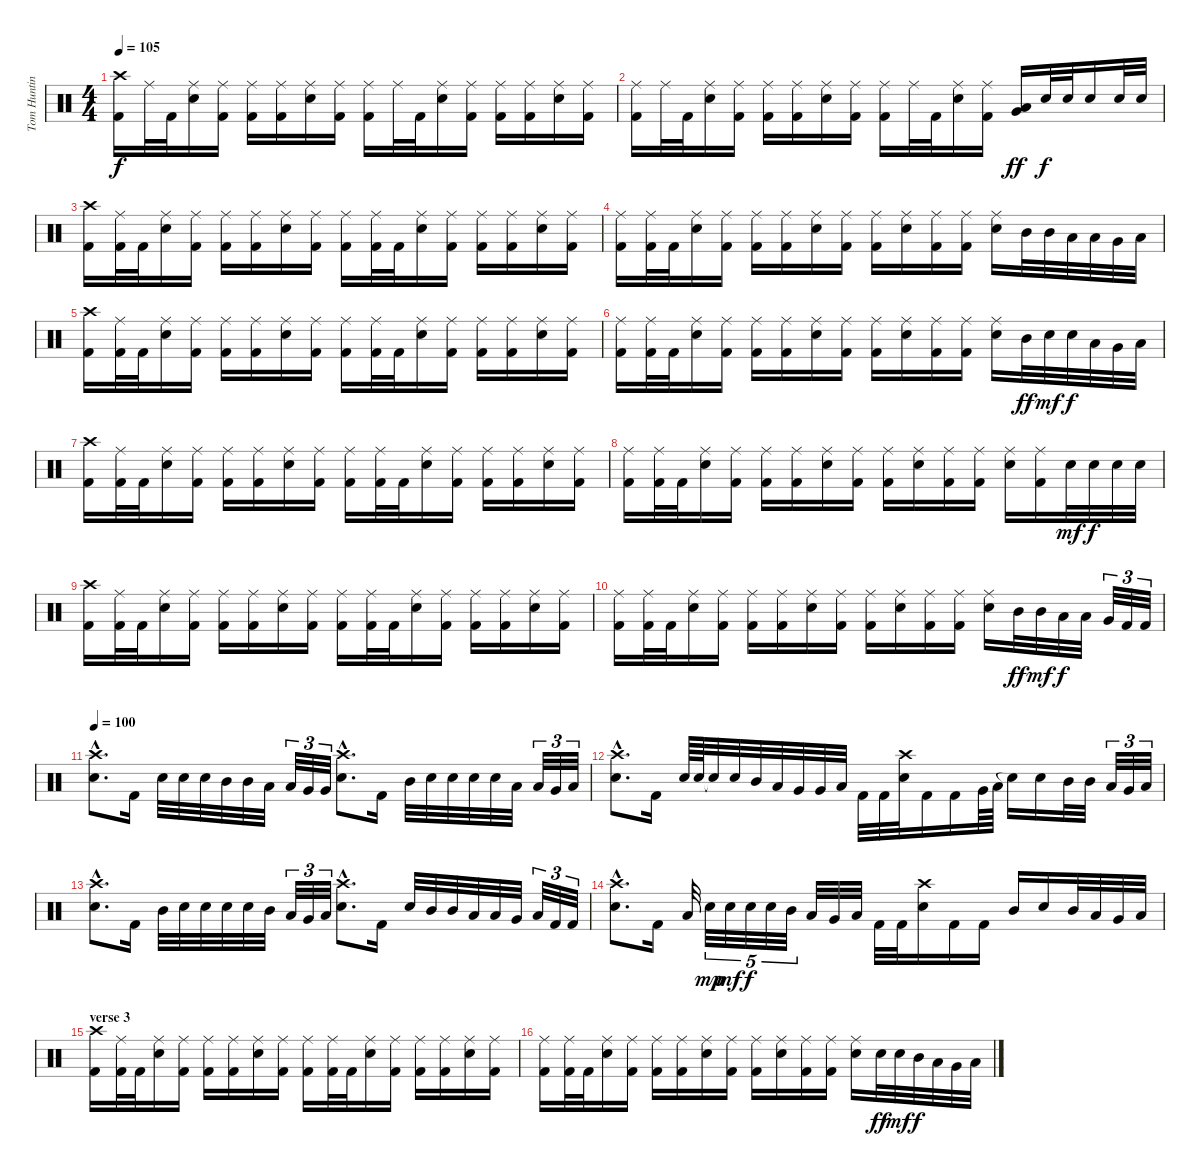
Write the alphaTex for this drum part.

\track ("Tom Hunting" "Tom Huntin") {instrument percussion}
\staff {score}
\articulation defaults
\ts (4 4)
\tempo 105
\clef neutral
\ks c
("Kick (hit) 2" "Crash high (hit)").16{dy f} "Ride (middle)".32 "Kick (hit) 2".32 ("Ride (middle)" "Snare (hit) 2").16 ("Kick (hit) 2" "Ride (middle)").16 ("Kick (hit) 2" "Ride (middle)").16 ("Kick (hit) 2" "Ride (middle)").16 ("Ride (middle)" "Snare (hit) 2").16 ("Kick (hit) 2" "Ride (middle)").16 ("Kick (hit) 2" "Ride (middle)").16 "Ride (middle)".32 "Kick (hit) 2".32 ("Ride (middle)" "Snare (hit) 2").16 ("Kick (hit) 2" "Ride (middle)").16 ("Kick (hit) 2" "Ride (middle)").16 ("Kick (hit) 2" "Ride (middle)").16 ("Ride (middle)" "Snare (hit) 2").16 ("Kick (hit) 2" "Ride (middle)").16 |
("Kick (hit) 2" "Ride (middle)").16 "Ride (middle)".32 "Kick (hit) 2".32 ("Ride (middle)" "Snare (hit) 2").16 ("Kick (hit) 2" "Ride (middle)").16 ("Kick (hit) 2" "Ride (middle)").16 ("Kick (hit) 2" "Ride (middle)").16 ("Ride (middle)" "Snare (hit) 2").16 ("Kick (hit) 2" "Ride (middle)").16 ("Kick (hit) 2" "Ride (middle)").16 "Ride (middle)".32 "Kick (hit) 2".32 ("Ride (middle)" "Snare (hit) 2").16 ("Kick (hit) 2" "Ride (middle)").16 ("Low Tom (hit)" "Very Low Tom (hit)").16{dy ff} "Snare (hit) 2".32{dy f} "Snare (hit) 2".32 "Snare (hit) 2".16 "Snare (hit) 2".32 "Snare (hit) 2".32 |
("Kick (hit) 2" "Crash high (hit)").16 ("Kick (hit) 2" "Ride (middle)").32 "Kick (hit) 2".32 ("Ride (middle)" "Snare (hit) 2").16 ("Kick (hit) 2" "Ride (middle)").16 ("Kick (hit) 2" "Ride (middle)").16 ("Kick (hit) 2" "Ride (middle)").16 ("Ride (middle)" "Snare (hit) 2").16 ("Kick (hit) 2" "Ride (middle)").16 ("Kick (hit) 2" "Ride (middle)").16 ("Kick (hit) 2" "Ride (middle)").32 "Kick (hit) 2".32 ("Ride (middle)" "Snare (hit) 2").16 ("Kick (hit) 2" "Ride (middle)").16 ("Kick (hit) 2" "Ride (middle)").16 ("Kick (hit) 2" "Ride (middle)").16 ("Ride (middle)" "Snare (hit) 2").16 ("Kick (hit) 2" "Ride (middle)").16 |
("Kick (hit) 2" "Ride (middle)").16 ("Kick (hit) 2" "Ride (middle)").32 "Kick (hit) 2".32 ("Ride (middle)" "Snare (hit) 2").16 ("Kick (hit) 2" "Ride (middle)").16 ("Kick (hit) 2" "Ride (middle)").16 ("Kick (hit) 2" "Ride (middle)").16 ("Ride (middle)" "Snare (hit) 2").16 ("Kick (hit) 2" "Ride (middle)").16 ("Kick (hit) 2" "Ride (middle)").16 ("Ride (middle)" "Snare (hit) 2").16 ("Kick (hit) 2" "Ride (middle)").16 ("Kick (hit) 2" "Ride (middle)").16 ("Ride (middle)" "Snare (hit) 2").16 "Mid Tom (hit)".32 "Mid Tom (hit)".32 "Low Tom (hit)".32 "Low Tom (hit)".32 "Very Low Tom (hit)".32 "Low Floor Tom (hit)".32 |
("Kick (hit) 2" "Crash high (hit)").16 ("Kick (hit) 2" "Ride (middle)").32 "Kick (hit) 2".32 ("Ride (middle)" "Snare (hit) 2").16 ("Kick (hit) 2" "Ride (middle)").16 ("Kick (hit) 2" "Ride (middle)").16 ("Kick (hit) 2" "Ride (middle)").16 ("Ride (middle)" "Snare (hit) 2").16 ("Kick (hit) 2" "Ride (middle)").16 ("Kick (hit) 2" "Ride (middle)").16 ("Kick (hit) 2" "Ride (middle)").32 "Kick (hit) 2".32 ("Ride (middle)" "Snare (hit) 2").16 ("Kick (hit) 2" "Ride (middle)").16 ("Kick (hit) 2" "Ride (middle)").16 ("Kick (hit) 2" "Ride (middle)").16 ("Ride (middle)" "Snare (hit) 2").16 ("Kick (hit) 2" "Ride (middle)").16 |
("Kick (hit) 2" "Ride (middle)").16 ("Kick (hit) 2" "Ride (middle)").32 "Kick (hit) 2".32 ("Ride (middle)" "Snare (hit) 2").16 ("Kick (hit) 2" "Ride (middle)").16 ("Kick (hit) 2" "Ride (middle)").16 ("Kick (hit) 2" "Ride (middle)").16 ("Ride (middle)" "Snare (hit) 2").16 ("Kick (hit) 2" "Ride (middle)").16 ("Kick (hit) 2" "Ride (middle)").16 ("Ride (middle)" "Snare (hit) 2").16 ("Kick (hit) 2" "Ride (middle)").16 ("Kick (hit) 2" "Ride (middle)").16 ("Ride (middle)" "Snare (hit) 2").16 "Mid Tom (hit)".32{dy ff} "Snare (hit) 2".32{dy mf} "Snare (hit) 2".32{dy f} "Low Tom (hit)".32 "Very Low Tom (hit)".32 "Low Floor Tom (hit)".32 |
("Kick (hit) 2" "Crash high (hit)").16 ("Kick (hit) 2" "Ride (middle)").32 "Kick (hit) 2".32 ("Ride (middle)" "Snare (hit) 2").16 ("Kick (hit) 2" "Ride (middle)").16 ("Kick (hit) 2" "Ride (middle)").16 ("Kick (hit) 2" "Ride (middle)").16 ("Ride (middle)" "Snare (hit) 2").16 ("Kick (hit) 2" "Ride (middle)").16 ("Kick (hit) 2" "Ride (middle)").16 ("Kick (hit) 2" "Ride (middle)").32 "Kick (hit) 2".32 ("Ride (middle)" "Snare (hit) 2").16 ("Kick (hit) 2" "Ride (middle)").16 ("Kick (hit) 2" "Ride (middle)").16 ("Kick (hit) 2" "Ride (middle)").16 ("Ride (middle)" "Snare (hit) 2").16 ("Kick (hit) 2" "Ride (middle)").16 |
("Kick (hit) 2" "Ride (middle)").16 ("Kick (hit) 2" "Ride (middle)").32 "Kick (hit) 2".32 ("Ride (middle)" "Snare (hit) 2").16 ("Kick (hit) 2" "Ride (middle)").16 ("Kick (hit) 2" "Ride (middle)").16 ("Kick (hit) 2" "Ride (middle)").16 ("Ride (middle)" "Snare (hit) 2").16 ("Kick (hit) 2" "Ride (middle)").16 ("Kick (hit) 2" "Ride (middle)").16 ("Ride (middle)" "Snare (hit) 2").16 ("Kick (hit) 2" "Ride (middle)").16 ("Kick (hit) 2" "Ride (middle)").16 ("Ride (middle)" "Snare (hit) 2").16 ("Kick (hit) 2" "Ride (middle)").16 "Snare (hit) 2".32{dy mf} "Snare (hit) 2".32{dy f} "Snare (hit) 2".32 "Snare (hit) 2".32 |
("Kick (hit) 2" "Crash high (hit)").16 ("Kick (hit) 2" "Ride (middle)").32 "Kick (hit) 2".32 ("Ride (middle)" "Snare (hit) 2").16 ("Kick (hit) 2" "Ride (middle)").16 ("Kick (hit) 2" "Ride (middle)").16 ("Kick (hit) 2" "Ride (middle)").16 ("Ride (middle)" "Snare (hit) 2").16 ("Kick (hit) 2" "Ride (middle)").16 ("Kick (hit) 2" "Ride (middle)").16 ("Kick (hit) 2" "Ride (middle)").32 "Kick (hit) 2".32 ("Ride (middle)" "Snare (hit) 2").16 ("Kick (hit) 2" "Ride (middle)").16 ("Kick (hit) 2" "Ride (middle)").16 ("Kick (hit) 2" "Ride (middle)").16 ("Ride (middle)" "Snare (hit) 2").16 ("Kick (hit) 2" "Ride (middle)").16 |
("Kick (hit) 2" "Ride (middle)").16 ("Kick (hit) 2" "Ride (middle)").32 "Kick (hit) 2".32 ("Ride (middle)" "Snare (hit) 2").16 ("Kick (hit) 2" "Ride (middle)").16 ("Kick (hit) 2" "Ride (middle)").16 ("Kick (hit) 2" "Ride (middle)").16 ("Ride (middle)" "Snare (hit) 2").16 ("Kick (hit) 2" "Ride (middle)").16 ("Kick (hit) 2" "Ride (middle)").16 ("Ride (middle)" "Snare (hit) 2").16 ("Kick (hit) 2" "Ride (middle)").16 ("Kick (hit) 2" "Ride (middle)").16 ("Ride (middle)" "Snare (hit) 2").16 "Mid Tom (hit)".32{dy ff} "Mid Tom (hit)".32{dy mf} "Low Tom (hit)".32{dy f} "Low Tom (hit)".32 "Very Low Tom (hit)".32{tu (3 2)} "Kick (hit) 2".32{tu (3 2)} "Kick (hit) 2".32{tu (3 2)} |
\tempo 100
("Crash high (hit)"{hac} "Snare (hit) 2"{hac}).8{d} "Kick (hit) 2".16 "Snare (hit) 2".32 "Snare (hit) 2".32 "Snare (hit) 2".32 "Mid Tom (hit)".32 "Mid Tom (hit)".32 "Low Tom (hit)".32 "Low Tom (hit)".32{tu (3 2)} "Very Low Tom (hit)".32{tu (3 2)} "Very Low Tom (hit)".32{tu (3 2)} ("Crash high (hit)"{hac} "Snare (hit) 2"{hac}).8{d} "Kick (hit) 2".16 "Mid Tom (hit)".32 "Snare (hit) 2".32 "Snare (hit) 2".32 "Snare (hit) 2".32 "Snare (hit) 2".32 "Low Tom (hit)".32 "Low Tom (hit)".32{tu (3 2)} "Very Low Tom (hit)".32{tu (3 2)} "Low Floor Tom (hit)".32{tu (3 2)} |
("Crash high (hit)"{hac} "Snare (hit) 2"{hac}).8{d} "Kick (hit) 2".16 "Snare (hit) 2".64 "Snare (hit) 2".64 "Snare (hit)"{t}.32 "Snare (hit) 2".32 "Mid Tom (hit)".32 "Low Tom (hit)".32 "Very Low Tom (hit)".32 "Very Low Tom (hit)".32 "Low Floor Tom (hit)".32 "Kick (hit) 2".32 "Kick (hit) 2".32 ("Crash high (hit)" "Snare (hit) 2").32 "Kick (hit) 2".16 "Kick (hit) 2".16 "Very Low Tom (hit)".64 "Low Tom (hit)".64 "Snare (hit)"{t}.16 "Snare (hit) 2".16 "Mid Tom (hit)".32 "Mid Tom (hit)".32 "Low Tom (hit)".32{tu (3 2)} "Very Low Tom (hit)".32{tu (3 2)} "Low Floor Tom (hit)".32{tu (3 2)} |
("Crash high (hit)"{hac} "Snare (hit) 2"{hac}).8{d} "Kick (hit) 2".16 "Mid Tom (hit)".32 "Snare (hit) 2".32 "Snare (hit) 2".32 "Snare (hit) 2".32 "Snare (hit) 2".32 "Mid Tom (hit)".32 "Low Tom (hit)".32{tu (3 2)} "Very Low Tom (hit)".32{tu (3 2)} "Low Floor Tom (hit)".32{tu (3 2)} ("Crash high (hit)"{hac} "Snare (hit) 2"{hac}).8{d} "Kick (hit) 2".16 "Snare (hit) 2".32 "Mid Tom (hit)".32 "Mid Tom (hit)".32 "Low Tom (hit)".32 "Low Tom (hit)".32 "Very Low Tom (hit)".32 "Low Floor Tom (hit)".32{tu (3 2)} "Kick (hit) 2".32{tu (3 2)} "Kick (hit) 2".32{tu (3 2)} |
("Crash high (hit)"{hac} "Snare (hit) 2"{hac}).8{d} "Kick (hit) 2".16 "Low Tom (hit)".32 "Snare (hit) 2".32{tu (5 4) dy mp} "Snare (hit) 2".32{tu (5 4) dy mf} "Snare (hit) 2".32{tu (5 4) dy f} "Snare (hit) 2".32{tu (5 4)} "Mid Tom (hit)".32{tu (5 4)} "Low Tom (hit)".32 "Very Low Tom (hit)".32 "Low Floor Tom (hit)".32 "Kick (hit) 2".32 "Kick (hit) 2".32 ("Crash high (hit)" "Snare (hit) 2").16 "Kick (hit) 2".16 "Kick (hit) 2".16 "Mid Tom (hit)".16 "Snare (hit) 2".16 "Mid Tom (hit)".32 "Low Tom (hit)".32 "Very Low Tom (hit)".32 "Low Floor Tom (hit)".32 |
\section ("" "verse 3")
("Kick (hit) 2" "Crash high (hit)").16 ("Kick (hit) 2" "Ride (middle)").32 "Kick (hit) 2".32 ("Ride (middle)" "Snare (hit) 2").16 ("Kick (hit) 2" "Ride (middle)").16 ("Kick (hit) 2" "Ride (middle)").16 ("Kick (hit) 2" "Ride (middle)").16 ("Ride (middle)" "Snare (hit) 2").16 ("Kick (hit) 2" "Ride (middle)").16 ("Kick (hit) 2" "Ride (middle)").16 ("Kick (hit) 2" "Ride (middle)").32 "Kick (hit) 2".32 ("Ride (middle)" "Snare (hit) 2").16 ("Kick (hit) 2" "Ride (middle)").16 ("Kick (hit) 2" "Ride (middle)").16 ("Kick (hit) 2" "Ride (middle)").16 ("Ride (middle)" "Snare (hit) 2").16 ("Kick (hit) 2" "Ride (middle)").16 |
("Kick (hit) 2" "Ride (middle)").16 ("Kick (hit) 2" "Ride (middle)").32 "Kick (hit) 2".32 ("Ride (middle)" "Snare (hit) 2").16 ("Kick (hit) 2" "Ride (middle)").16 ("Kick (hit) 2" "Ride (middle)").16 ("Kick (hit) 2" "Ride (middle)").16 ("Ride (middle)" "Snare (hit) 2").16 ("Kick (hit) 2" "Ride (middle)").16 ("Kick (hit) 2" "Ride (middle)").16 ("Ride (middle)" "Snare (hit) 2").16 ("Kick (hit) 2" "Ride (middle)").16 ("Kick (hit) 2" "Ride (middle)").16 ("Ride (middle)" "Snare (hit) 2").16 "Snare (hit) 2".32{dy ff} "Snare (hit) 2".32{dy mf} "Mid Tom (hit)".32{dy f} "Low Tom (hit)".32 "Very Low Tom (hit)".32 "Low Floor Tom (hit)".32
